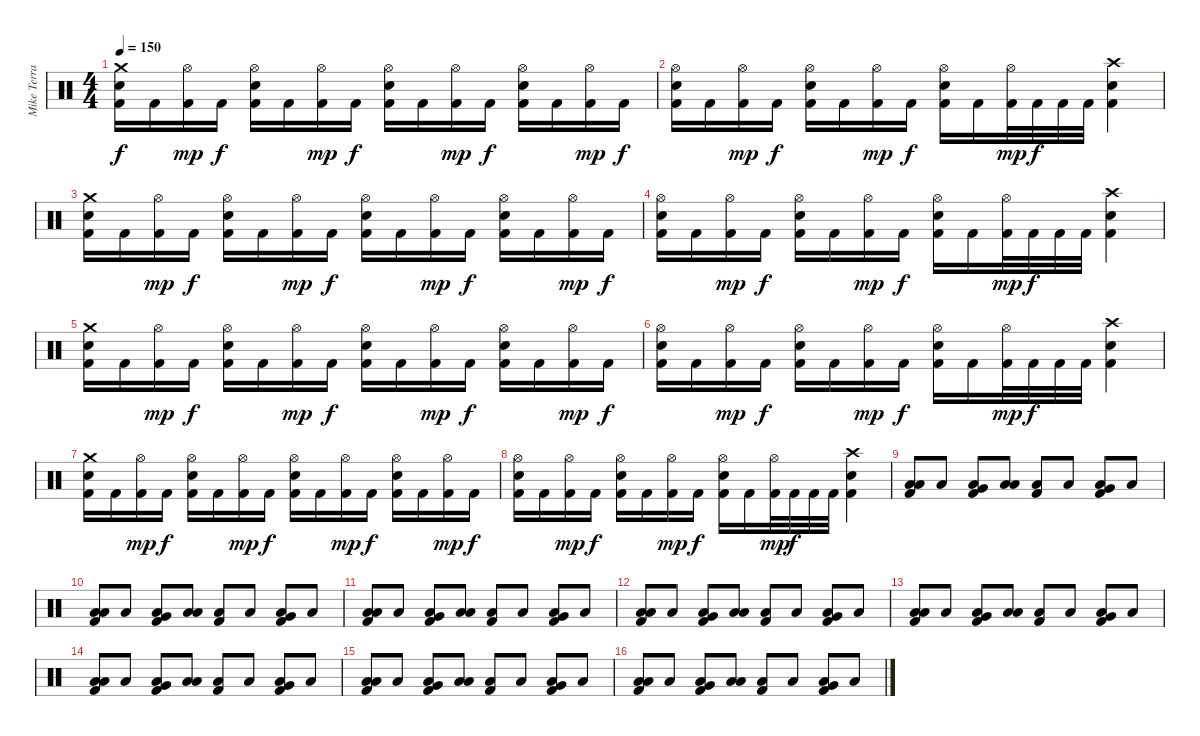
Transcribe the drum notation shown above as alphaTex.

\track ("Mike Terrana" "Mike Terra") {instrument percussion}
\staff {score}
\articulation defaults
\ts (4 4)
\tempo 150
\clef neutral
\ks c
("Crash medium (hit)" "Electric Snare (hit)" "Kick (hit) 2").16{dy f} "Kick (hit) 2".16 ("Hi-Hat (open)" "Kick (hit) 2").16{dy mp} "Kick (hit) 2".16{dy f} ("Hi-Hat (open)" "Electric Snare (hit)" "Kick (hit) 2").16 "Kick (hit) 2".16 ("Hi-Hat (open)" "Kick (hit) 2").16{dy mp} "Kick (hit) 2".16{dy f} ("Hi-Hat (open)" "Electric Snare (hit)" "Kick (hit) 2").16 "Kick (hit) 2".16 ("Hi-Hat (open)" "Kick (hit) 2").16{dy mp} "Kick (hit) 2".16{dy f} ("Hi-Hat (open)" "Electric Snare (hit)" "Kick (hit) 2").16 "Kick (hit) 2".16 ("Hi-Hat (open)" "Kick (hit) 2").16{dy mp} "Kick (hit) 2".16{dy f} |
("Hi-Hat (open)" "Electric Snare (hit)" "Kick (hit) 2").16 "Kick (hit) 2".16 ("Hi-Hat (open)" "Kick (hit) 2").16{dy mp} "Kick (hit) 2".16{dy f} ("Hi-Hat (open)" "Electric Snare (hit)" "Kick (hit) 2").16 "Kick (hit) 2".16 ("Hi-Hat (open)" "Kick (hit) 2").16{dy mp} "Kick (hit) 2".16{dy f} ("Hi-Hat (open)" "Electric Snare (hit)" "Kick (hit) 2").16 "Kick (hit) 2".16 ("Hi-Hat (open)" "Kick (hit) 2").32{dy mp} "Kick (hit) 2".32{dy f} "Kick (hit) 2".32 "Kick (hit) 2".32 ("Crash high (hit)" "Electric Snare (hit)" "Kick (hit) 2").4 |
("Crash medium (hit)" "Electric Snare (hit)" "Kick (hit) 2").16 "Kick (hit) 2".16 ("Hi-Hat (open)" "Kick (hit) 2").16{dy mp} "Kick (hit) 2".16{dy f} ("Hi-Hat (open)" "Electric Snare (hit)" "Kick (hit) 2").16 "Kick (hit) 2".16 ("Hi-Hat (open)" "Kick (hit) 2").16{dy mp} "Kick (hit) 2".16{dy f} ("Hi-Hat (open)" "Electric Snare (hit)" "Kick (hit) 2").16 "Kick (hit) 2".16 ("Hi-Hat (open)" "Kick (hit) 2").16{dy mp} "Kick (hit) 2".16{dy f} ("Hi-Hat (open)" "Electric Snare (hit)" "Kick (hit) 2").16 "Kick (hit) 2".16 ("Hi-Hat (open)" "Kick (hit) 2").16{dy mp} "Kick (hit) 2".16{dy f} |
("Hi-Hat (open)" "Electric Snare (hit)" "Kick (hit) 2").16 "Kick (hit) 2".16 ("Hi-Hat (open)" "Kick (hit) 2").16{dy mp} "Kick (hit) 2".16{dy f} ("Hi-Hat (open)" "Electric Snare (hit)" "Kick (hit) 2").16 "Kick (hit) 2".16 ("Hi-Hat (open)" "Kick (hit) 2").16{dy mp} "Kick (hit) 2".16{dy f} ("Hi-Hat (open)" "Electric Snare (hit)" "Kick (hit) 2").16 "Kick (hit) 2".16 ("Hi-Hat (open)" "Kick (hit) 2").32{dy mp} "Kick (hit) 2".32{dy f} "Kick (hit) 2".32 "Kick (hit) 2".32 ("Crash high (hit)" "Electric Snare (hit)" "Kick (hit) 2").4 |
("Crash medium (hit)" "Electric Snare (hit)" "Kick (hit) 2").16 "Kick (hit) 2".16 ("Hi-Hat (open)" "Kick (hit) 2").16{dy mp} "Kick (hit) 2".16{dy f} ("Hi-Hat (open)" "Electric Snare (hit)" "Kick (hit) 2").16 "Kick (hit) 2".16 ("Hi-Hat (open)" "Kick (hit) 2").16{dy mp} "Kick (hit) 2".16{dy f} ("Hi-Hat (open)" "Electric Snare (hit)" "Kick (hit) 2").16 "Kick (hit) 2".16 ("Hi-Hat (open)" "Kick (hit) 2").16{dy mp} "Kick (hit) 2".16{dy f} ("Hi-Hat (open)" "Electric Snare (hit)" "Kick (hit) 2").16 "Kick (hit) 2".16 ("Hi-Hat (open)" "Kick (hit) 2").16{dy mp} "Kick (hit) 2".16{dy f} |
("Hi-Hat (open)" "Electric Snare (hit)" "Kick (hit) 2").16 "Kick (hit) 2".16 ("Hi-Hat (open)" "Kick (hit) 2").16{dy mp} "Kick (hit) 2".16{dy f} ("Hi-Hat (open)" "Electric Snare (hit)" "Kick (hit) 2").16 "Kick (hit) 2".16 ("Hi-Hat (open)" "Kick (hit) 2").16{dy mp} "Kick (hit) 2".16{dy f} ("Hi-Hat (open)" "Electric Snare (hit)" "Kick (hit) 2").16 "Kick (hit) 2".16 ("Hi-Hat (open)" "Kick (hit) 2").32{dy mp} "Kick (hit) 2".32{dy f} "Kick (hit) 2".32 "Kick (hit) 2".32 ("Crash high (hit)" "Electric Snare (hit)" "Kick (hit) 2").4 |
("Crash medium (hit)" "Electric Snare (hit)" "Kick (hit) 2").16 "Kick (hit) 2".16 ("Hi-Hat (open)" "Kick (hit) 2").16{dy mp} "Kick (hit) 2".16{dy f} ("Hi-Hat (open)" "Electric Snare (hit)" "Kick (hit) 2").16 "Kick (hit) 2".16 ("Hi-Hat (open)" "Kick (hit) 2").16{dy mp} "Kick (hit) 2".16{dy f} ("Hi-Hat (open)" "Electric Snare (hit)" "Kick (hit) 2").16 "Kick (hit) 2".16 ("Hi-Hat (open)" "Kick (hit) 2").16{dy mp} "Kick (hit) 2".16{dy f} ("Hi-Hat (open)" "Electric Snare (hit)" "Kick (hit) 2").16 "Kick (hit) 2".16 ("Hi-Hat (open)" "Kick (hit) 2").16{dy mp} "Kick (hit) 2".16{dy f} |
("Hi-Hat (open)" "Electric Snare (hit)" "Kick (hit) 2").16 "Kick (hit) 2".16 ("Hi-Hat (open)" "Kick (hit) 2").16{dy mp} "Kick (hit) 2".16{dy f} ("Hi-Hat (open)" "Electric Snare (hit)" "Kick (hit) 2").16 "Kick (hit) 2".16 ("Hi-Hat (open)" "Kick (hit) 2").16{dy mp} "Kick (hit) 2".16{dy f} ("Hi-Hat (open)" "Electric Snare (hit)" "Kick (hit) 2").16 "Kick (hit) 2".16 ("Hi-Hat (open)" "Kick (hit) 2").32{dy mp} "Kick (hit) 2".32{dy f} "Kick (hit) 2".32 "Kick (hit) 2".32 ("Crash high (hit)" "Electric Snare (hit)" "Kick (hit) 2").4 |
("Low Tom (hit)" "Low Floor Tom (hit)" "Kick (hit) 2").8 "Low Floor Tom (hit)".8 ("Very Low Tom (hit)" "Low Floor Tom (hit)" "Kick (hit) 2").8 ("Low Tom (hit)" "Low Floor Tom (hit)").8 ("Low Floor Tom (hit)" "Kick (hit) 2").8 "Low Floor Tom (hit)".8 ("Very Low Tom (hit)" "Low Floor Tom (hit)" "Kick (hit) 2").8 "Low Floor Tom (hit)".8 |
("Low Tom (hit)" "Low Floor Tom (hit)" "Kick (hit) 2").8 "Low Floor Tom (hit)".8 ("Very Low Tom (hit)" "Low Floor Tom (hit)" "Kick (hit) 2").8 ("Low Tom (hit)" "Low Floor Tom (hit)").8 ("Low Floor Tom (hit)" "Kick (hit) 2").8 "Low Floor Tom (hit)".8 ("Very Low Tom (hit)" "Low Floor Tom (hit)" "Kick (hit) 2").8 "Low Floor Tom (hit)".8 |
("Low Tom (hit)" "Low Floor Tom (hit)" "Kick (hit) 2").8 "Low Floor Tom (hit)".8 ("Very Low Tom (hit)" "Low Floor Tom (hit)" "Kick (hit) 2").8 ("Low Tom (hit)" "Low Floor Tom (hit)").8 ("Low Floor Tom (hit)" "Kick (hit) 2").8 "Low Floor Tom (hit)".8 ("Very Low Tom (hit)" "Low Floor Tom (hit)" "Kick (hit) 2").8 "Low Floor Tom (hit)".8 |
("Low Tom (hit)" "Low Floor Tom (hit)" "Kick (hit) 2").8 "Low Floor Tom (hit)".8 ("Very Low Tom (hit)" "Low Floor Tom (hit)" "Kick (hit) 2").8 ("Low Tom (hit)" "Low Floor Tom (hit)").8 ("Low Floor Tom (hit)" "Kick (hit) 2").8 "Low Floor Tom (hit)".8 ("Very Low Tom (hit)" "Low Floor Tom (hit)" "Kick (hit) 2").8 "Low Floor Tom (hit)".8 |
("Low Tom (hit)" "Low Floor Tom (hit)" "Kick (hit) 2").8 "Low Floor Tom (hit)".8 ("Very Low Tom (hit)" "Low Floor Tom (hit)" "Kick (hit) 2").8 ("Low Tom (hit)" "Low Floor Tom (hit)").8 ("Low Floor Tom (hit)" "Kick (hit) 2").8 "Low Floor Tom (hit)".8 ("Very Low Tom (hit)" "Low Floor Tom (hit)" "Kick (hit) 2").8 "Low Floor Tom (hit)".8 |
("Low Tom (hit)" "Low Floor Tom (hit)" "Kick (hit) 2").8 "Low Floor Tom (hit)".8 ("Very Low Tom (hit)" "Low Floor Tom (hit)" "Kick (hit) 2").8 ("Low Tom (hit)" "Low Floor Tom (hit)").8 ("Low Floor Tom (hit)" "Kick (hit) 2").8 "Low Floor Tom (hit)".8 ("Very Low Tom (hit)" "Low Floor Tom (hit)" "Kick (hit) 2").8 "Low Floor Tom (hit)".8 |
("Low Tom (hit)" "Low Floor Tom (hit)" "Kick (hit) 2").8 "Low Floor Tom (hit)".8 ("Very Low Tom (hit)" "Low Floor Tom (hit)" "Kick (hit) 2").8 ("Low Tom (hit)" "Low Floor Tom (hit)").8 ("Low Floor Tom (hit)" "Kick (hit) 2").8 "Low Floor Tom (hit)".8 ("Very Low Tom (hit)" "Low Floor Tom (hit)" "Kick (hit) 2").8 "Low Floor Tom (hit)".8 |
("Low Tom (hit)" "Low Floor Tom (hit)" "Kick (hit) 2").8 "Low Floor Tom (hit)".8 ("Very Low Tom (hit)" "Low Floor Tom (hit)" "Kick (hit) 2").8 ("Low Tom (hit)" "Low Floor Tom (hit)").8 ("Low Floor Tom (hit)" "Kick (hit) 2").8 "Low Floor Tom (hit)".8 ("Very Low Tom (hit)" "Low Floor Tom (hit)" "Kick (hit) 2").8 "Low Floor Tom (hit)".8
